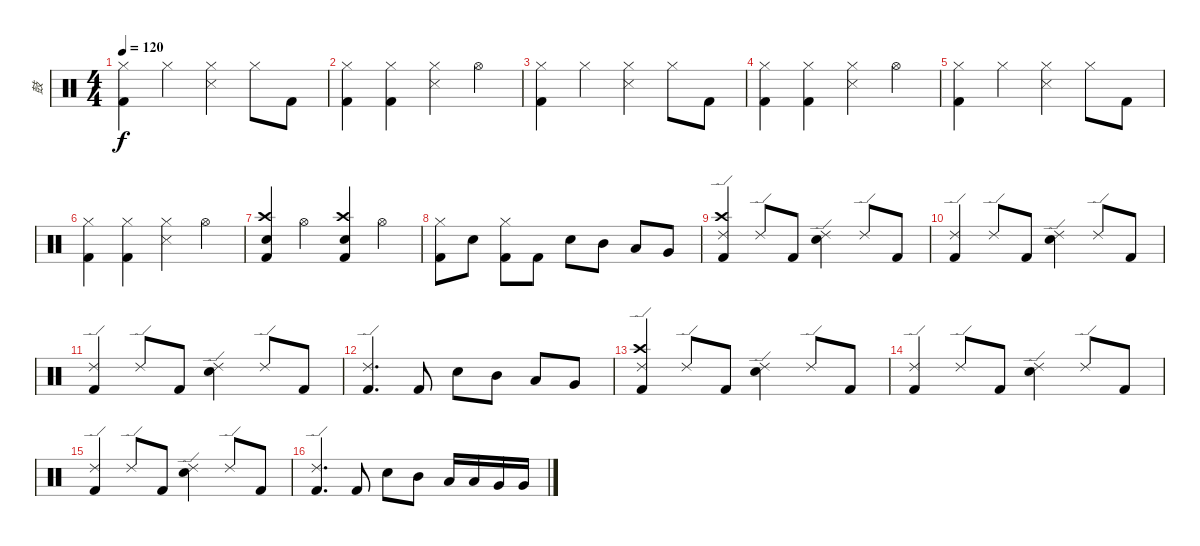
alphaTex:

\track ("鼓" "鼓") {instrument percussion}
\staff {score}
\articulation defaults
\ts (4 4)
\tempo 120
\clef neutral
\ks c
("Hi-Hat (closed)" "Kick (hit) 2").4{dy f} "Hi-Hat (closed)".4 ("Hi-Hat (closed)" "Snare (side stick) 3").4 "Hi-Hat (closed)".8 "Kick (hit) 2".8 |
("Hi-Hat (closed)" "Kick (hit) 2").4 ("Hi-Hat (closed)" "Kick (hit) 2").4 ("Hi-Hat (closed)" "Snare (side stick) 3").4 "Hi-Hat (open)".4 |
("Hi-Hat (closed)" "Kick (hit) 2").4 "Hi-Hat (closed)".4 ("Hi-Hat (closed)" "Snare (side stick) 3").4 "Hi-Hat (closed)".8 "Kick (hit) 2".8 |
("Hi-Hat (closed)" "Kick (hit) 2").4 ("Hi-Hat (closed)" "Kick (hit) 2").4 ("Hi-Hat (closed)" "Snare (side stick) 3").4 "Hi-Hat (open)".4 |
("Hi-Hat (closed)" "Kick (hit) 2").4 "Hi-Hat (closed)".4 ("Hi-Hat (closed)" "Snare (side stick) 3").4 "Hi-Hat (closed)".8 "Kick (hit) 2".8 |
("Hi-Hat (closed)" "Kick (hit) 2").4 ("Hi-Hat (closed)" "Kick (hit) 2").4 ("Hi-Hat (closed)" "Snare (side stick) 3").4 "Hi-Hat (open)".4 |
("Crash high (hit)" "Electric Snare (hit)" "Kick (hit) 2").4 "Hi-Hat (open)".4 ("Crash high (hit)" "Electric Snare (hit)" "Kick (hit) 2").4 "Hi-Hat (open)".4 |
("Hi-Hat (closed)" "Kick (hit) 2").8 "Electric Snare (hit)".8 ("Hi-Hat (closed)" "Kick (hit) 2").8 "Kick (hit) 2".8 "Electric Snare (hit)".8 "Mid Tom (hit)".8 "Low Tom (hit)".8 "Very Low Tom (hit)".8 |
("Ride (edge) 2" "Crash high (hit)" "Kick (hit) 2").4 "Ride (edge) 2".8 "Kick (hit) 2".8 ("Ride (edge) 2" "Electric Snare (hit)").4 "Ride (edge) 2".8 "Kick (hit) 2".8 |
("Ride (edge) 2" "Kick (hit) 2").4 "Ride (edge) 2".8 "Kick (hit) 2".8 ("Ride (edge) 2" "Electric Snare (hit)").4 "Ride (edge) 2".8 "Kick (hit) 2".8 |
("Ride (edge) 2" "Kick (hit) 2").4 "Ride (edge) 2".8 "Kick (hit) 2".8 ("Ride (edge) 2" "Electric Snare (hit)").4 "Ride (edge) 2".8 "Kick (hit) 2".8 |
("Ride (edge) 2" "Kick (hit) 2").4{d} "Kick (hit) 2".8 "Electric Snare (hit)".8 "Mid Tom (hit)".8 "Low Tom (hit)".8 "Very Low Tom (hit)".8 |
("Ride (edge) 2" "Crash high (hit)" "Kick (hit) 2").4 "Ride (edge) 2".8 "Kick (hit) 2".8 ("Ride (edge) 2" "Electric Snare (hit)").4 "Ride (edge) 2".8 "Kick (hit) 2".8 |
("Ride (edge) 2" "Kick (hit) 2").4 "Ride (edge) 2".8 "Kick (hit) 2".8 ("Ride (edge) 2" "Electric Snare (hit)").4 "Ride (edge) 2".8 "Kick (hit) 2".8 |
("Ride (edge) 2" "Kick (hit) 2").4 "Ride (edge) 2".8 "Kick (hit) 2".8 ("Ride (edge) 2" "Electric Snare (hit)").4 "Ride (edge) 2".8 "Kick (hit) 2".8 |
("Ride (edge) 2" "Kick (hit) 2").4{d} "Kick (hit) 2".8 "Electric Snare (hit)".8 "Mid Tom (hit)".8 "Low Tom (hit)".16 "Low Tom (hit)".16 "Very Low Tom (hit)".16 "Very Low Tom (hit)".16
